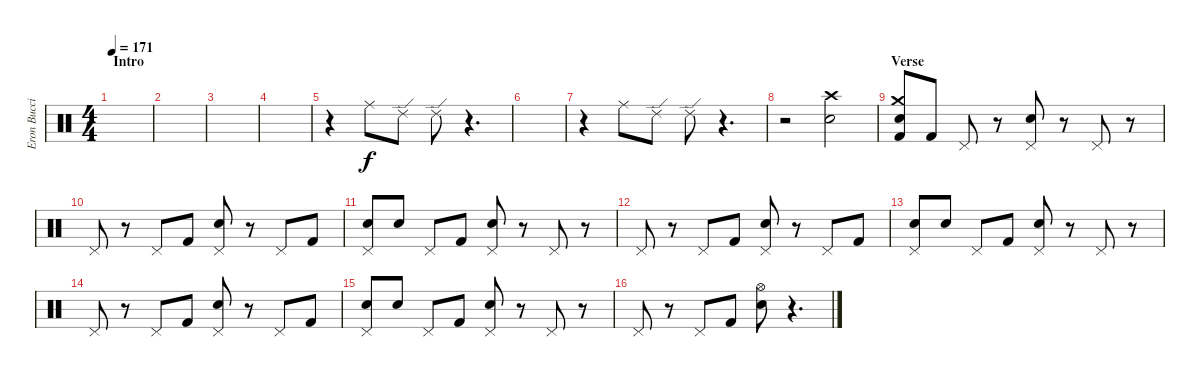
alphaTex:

\track ("Eron Bucciarelli (Drums)" "Eron Bucci") {instrument percussion}
\staff {score}
\articulation defaults
\ts (4 4)
\section ("" "Intro")
\tempo 171
\clef neutral
\ks c
|
|
|
|
r.4 "Ride (middle)".8 "Ride (edge) 2".8 "Ride (edge) 2".8 r.4{d} |
|
r.4 "Ride (middle)".8 "Ride (edge) 2".8 "Ride (edge) 2".8 r.4{d} |
r.2 ("Crash high (hit)" "Snare (hit) 2").2{dy f} |
\section ("" "Verse")
("Crash medium (hit)" "Snare (hit) 2" "Kick (hit) 2").8 "Kick (hit) 2".8 "Pedal Hi-Hat (hit)".8 r.8 ("Pedal Hi-Hat (hit)" "Snare (hit) 2").8 r.8 "Pedal Hi-Hat (hit)".8 r.8 |
"Pedal Hi-Hat (hit)".8 r.8 "Pedal Hi-Hat (hit)".8 "Kick (hit) 2".8 ("Pedal Hi-Hat (hit)" "Snare (hit) 2").8 r.8 "Pedal Hi-Hat (hit)".8 "Kick (hit) 2".8 |
("Pedal Hi-Hat (hit)" "Snare (hit) 2").8 "Snare (hit) 2".8 "Pedal Hi-Hat (hit)".8 "Kick (hit) 2".8 ("Pedal Hi-Hat (hit)" "Snare (hit) 2").8 r.8 "Pedal Hi-Hat (hit)".8 r.8 |
"Pedal Hi-Hat (hit)".8 r.8 "Pedal Hi-Hat (hit)".8 "Kick (hit) 2".8 ("Pedal Hi-Hat (hit)" "Snare (hit) 2").8 r.8 "Pedal Hi-Hat (hit)".8 "Kick (hit) 2".8 |
("Pedal Hi-Hat (hit)" "Snare (hit) 2").8 "Snare (hit) 2".8 "Pedal Hi-Hat (hit)".8 "Kick (hit) 2".8 ("Pedal Hi-Hat (hit)" "Snare (hit) 2").8 r.8 "Pedal Hi-Hat (hit)".8 r.8 |
"Pedal Hi-Hat (hit)".8 r.8 "Pedal Hi-Hat (hit)".8 "Kick (hit) 2".8 ("Pedal Hi-Hat (hit)" "Snare (hit) 2").8 r.8 "Pedal Hi-Hat (hit)".8 "Kick (hit) 2".8 |
("Pedal Hi-Hat (hit)" "Snare (hit) 2").8 "Snare (hit) 2".8 "Pedal Hi-Hat (hit)".8 "Kick (hit) 2".8 ("Pedal Hi-Hat (hit)" "Snare (hit) 2").8 r.8 "Pedal Hi-Hat (hit)".8 r.8 |
"Pedal Hi-Hat (hit)".8 r.8 "Pedal Hi-Hat (hit)".8 "Kick (hit) 2".8 ("Hi-Hat (open)" "Snare (hit) 2").8 r.4{d}
